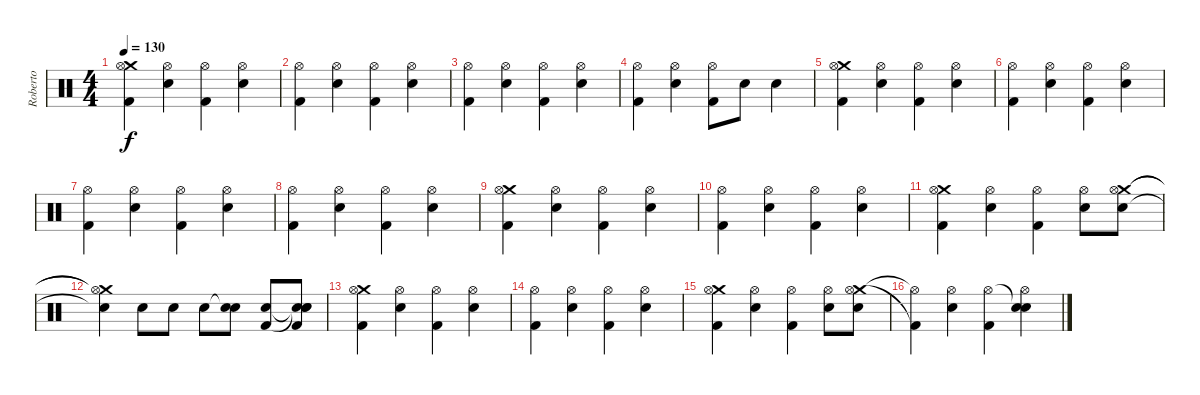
\track ("Roberto" "Roberto") {instrument percussion}
\staff {score}
\articulation defaults
\ts (4 4)
\tempo 130
\clef neutral
\ks c
("Crash medium (hit)" "Hi-Hat (open)" "Kick (hit) 2").4{dy f} ("Hi-Hat (open)" "Snare (hit) 2").4 ("Hi-Hat (open)" "Kick (hit) 2").4 ("Hi-Hat (open)" "Snare (hit) 2").4 |
("Hi-Hat (open)" "Kick (hit) 2").4 ("Hi-Hat (open)" "Snare (hit) 2").4 ("Hi-Hat (open)" "Kick (hit) 2").4 ("Hi-Hat (open)" "Snare (hit) 2").4 |
("Hi-Hat (open)" "Kick (hit) 2").4 ("Hi-Hat (open)" "Snare (hit) 2").4 ("Hi-Hat (open)" "Kick (hit) 2").4 ("Hi-Hat (open)" "Snare (hit) 2").4 |
("Hi-Hat (open)" "Kick (hit) 2").4 ("Hi-Hat (open)" "Snare (hit) 2").4 ("Hi-Hat (open)" "Kick (hit) 2").8 "Snare (hit) 2".8 "Snare (hit) 2".4 |
("Crash medium (hit)" "Hi-Hat (open)" "Kick (hit) 2").4 ("Hi-Hat (open)" "Snare (hit) 2").4 ("Hi-Hat (open)" "Kick (hit) 2").4 ("Hi-Hat (open)" "Snare (hit) 2").4 |
("Hi-Hat (open)" "Kick (hit) 2").4 ("Hi-Hat (open)" "Snare (hit) 2").4 ("Hi-Hat (open)" "Kick (hit) 2").4 ("Hi-Hat (open)" "Snare (hit) 2").4 |
("Hi-Hat (open)" "Kick (hit) 2").4 ("Hi-Hat (open)" "Snare (hit) 2").4 ("Hi-Hat (open)" "Kick (hit) 2").4 ("Hi-Hat (open)" "Snare (hit) 2").4 |
("Hi-Hat (open)" "Kick (hit) 2").4 ("Hi-Hat (open)" "Snare (hit) 2").4 ("Hi-Hat (open)" "Kick (hit) 2").4 ("Hi-Hat (open)" "Snare (hit) 2").4 |
("Crash medium (hit)" "Hi-Hat (open)" "Kick (hit) 2").4 ("Hi-Hat (open)" "Snare (hit) 2").4 ("Hi-Hat (open)" "Kick (hit) 2").4 ("Hi-Hat (open)" "Snare (hit) 2").4 |
("Hi-Hat (open)" "Kick (hit) 2").4 ("Hi-Hat (open)" "Snare (hit) 2").4 ("Hi-Hat (open)" "Kick (hit) 2").4 ("Hi-Hat (open)" "Snare (hit) 2").4 |
("Crash medium (hit)" "Hi-Hat (open)" "Kick (hit) 2").4 ("Hi-Hat (open)" "Snare (hit) 2").4 ("Hi-Hat (open)" "Kick (hit) 2").4 ("Hi-Hat (open)" "Snare (hit) 2").8 ("Crash medium (hit)" "Hi-Hat (open)" "Snare (hit) 2").8 |
("Crash medium (hit)"{t} "Hi-Hat (open)"{t} "Snare (hit)"{t}).4 "Snare (hit) 2".8 "Snare (hit) 2".8 "Snare (hit) 2".8 ("Snare (hit)"{t} "Snare (hit) 2").8 ("Kick (hit) 2" "Snare (hit) 2").8 ("Snare (hit)"{t} "Snare (hit)"{t} "Kick (hit) 2" "Snare (hit) 2").8 |
("Crash medium (hit)" "Hi-Hat (open)" "Kick (hit) 2").4 ("Hi-Hat (open)" "Snare (hit) 2").4 ("Hi-Hat (open)" "Kick (hit) 2").4 ("Hi-Hat (open)" "Snare (hit) 2").4 |
("Hi-Hat (open)" "Kick (hit) 2").4 ("Hi-Hat (open)" "Snare (hit) 2").4 ("Hi-Hat (open)" "Kick (hit) 2").4 ("Hi-Hat (open)" "Snare (hit) 2").4 |
("Crash medium (hit)" "Hi-Hat (open)" "Kick (hit) 2").4 ("Hi-Hat (open)" "Snare (hit) 2").4 ("Hi-Hat (open)" "Kick (hit) 2").4 ("Hi-Hat (open)" "Snare (hit) 2").8 ("Crash medium (hit)" "Hi-Hat (open)" "Snare (hit) 2").8 |
("Hi-Hat (open)"{t} "Kick (hit) 2"{t}).4 ("Hi-Hat (open)" "Snare (hit) 2").4 ("Hi-Hat (open)" "Kick (hit) 2").4 ("Snare (hit)"{t} "Hi-Hat (open)" "Snare (hit) 2").4
